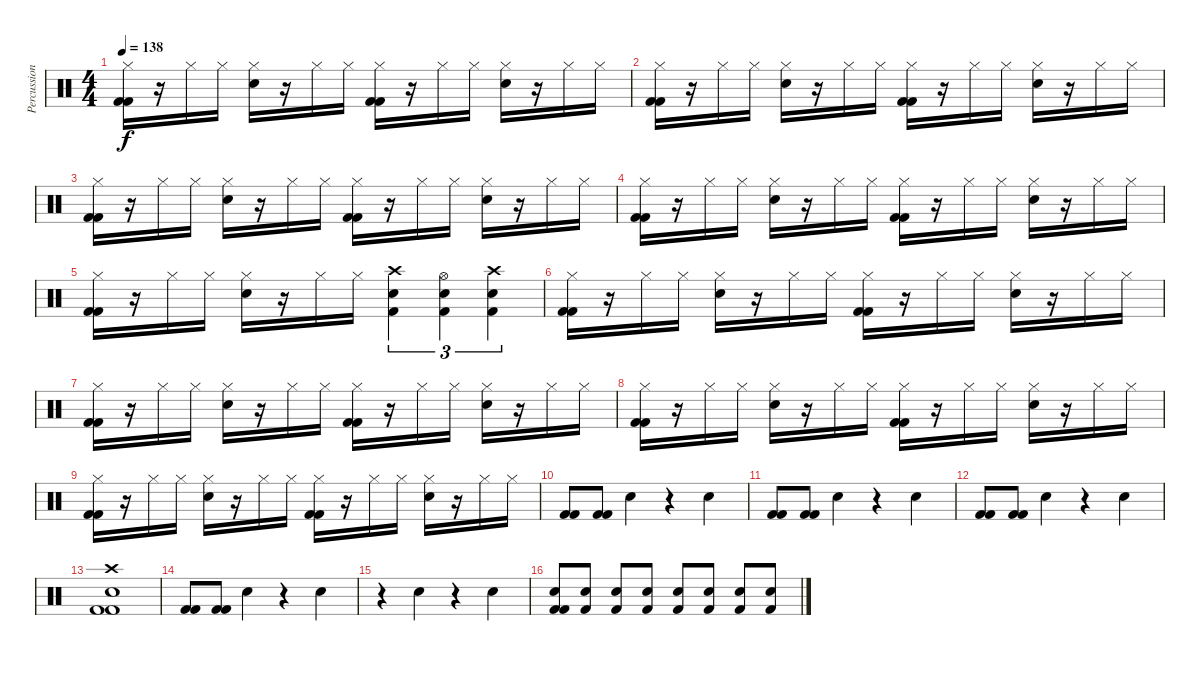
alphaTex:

\track ("Percussion" "Percussion") {instrument percussion}
\staff {score}
\articulation defaults
\ts (4 4)
\tempo 138
\clef neutral
\ks c
("Hi-Hat (closed)" "Kick (hit) 2" "Kick (hit) 2").16{dy f} r.16 "Hi-Hat (closed)".16 "Hi-Hat (closed)".16 ("Hi-Hat (closed)" "Snare (hit) 2").16 r.16 "Hi-Hat (closed)".16 "Hi-Hat (closed)".16 ("Hi-Hat (closed)" "Kick (hit) 2" "Kick (hit) 2").16 r.16 "Hi-Hat (closed)".16 "Hi-Hat (closed)".16 ("Hi-Hat (closed)" "Snare (hit) 2").16 r.16 "Hi-Hat (closed)".16 "Hi-Hat (closed)".16 |
("Hi-Hat (closed)" "Kick (hit) 2" "Kick (hit) 2").16 r.16 "Hi-Hat (closed)".16 "Hi-Hat (closed)".16 ("Hi-Hat (closed)" "Snare (hit) 2").16 r.16 "Hi-Hat (closed)".16 "Hi-Hat (closed)".16 ("Hi-Hat (closed)" "Kick (hit) 2" "Kick (hit) 2").16 r.16 "Hi-Hat (closed)".16 "Hi-Hat (closed)".16 ("Hi-Hat (closed)" "Snare (hit) 2").16 r.16 "Hi-Hat (closed)".16 "Hi-Hat (closed)".16 |
("Hi-Hat (closed)" "Kick (hit) 2" "Kick (hit) 2").16 r.16 "Hi-Hat (closed)".16 "Hi-Hat (closed)".16 ("Hi-Hat (closed)" "Snare (hit) 2").16 r.16 "Hi-Hat (closed)".16 "Hi-Hat (closed)".16 ("Hi-Hat (closed)" "Kick (hit) 2" "Kick (hit) 2").16 r.16 "Hi-Hat (closed)".16 "Hi-Hat (closed)".16 ("Hi-Hat (closed)" "Snare (hit) 2").16 r.16 "Hi-Hat (closed)".16 "Hi-Hat (closed)".16 |
("Hi-Hat (closed)" "Kick (hit) 2" "Kick (hit) 2").16 r.16 "Hi-Hat (closed)".16 "Hi-Hat (closed)".16 ("Hi-Hat (closed)" "Snare (hit) 2").16 r.16 "Hi-Hat (closed)".16 "Hi-Hat (closed)".16 ("Hi-Hat (closed)" "Kick (hit) 2" "Kick (hit) 2").16 r.16 "Hi-Hat (closed)".16 "Hi-Hat (closed)".16 ("Hi-Hat (closed)" "Snare (hit) 2").16 r.16 "Hi-Hat (closed)".16 "Hi-Hat (closed)".16 |
("Hi-Hat (closed)" "Kick (hit) 2" "Kick (hit) 2").16 r.16 "Hi-Hat (closed)".16 "Hi-Hat (closed)".16 ("Hi-Hat (closed)" "Snare (hit) 2").16 r.16 "Hi-Hat (closed)".16 "Hi-Hat (closed)".16 ("Crash high (hit)" "Snare (hit) 2" "Kick (hit) 2").4{tu (3 2)} ("Hi-Hat (open)" "Snare (hit) 2" "Kick (hit) 2").4{tu (3 2)} ("Crash high (hit)" "Snare (hit) 2" "Kick (hit) 2").4{tu (3 2)} |
("Hi-Hat (closed)" "Kick (hit) 2" "Kick (hit) 2").16 r.16 "Hi-Hat (closed)".16 "Hi-Hat (closed)".16 ("Hi-Hat (closed)" "Snare (hit) 2").16 r.16 "Hi-Hat (closed)".16 "Hi-Hat (closed)".16 ("Hi-Hat (closed)" "Kick (hit) 2" "Kick (hit) 2").16 r.16 "Hi-Hat (closed)".16 "Hi-Hat (closed)".16 ("Hi-Hat (closed)" "Snare (hit) 2").16 r.16 "Hi-Hat (closed)".16 "Hi-Hat (closed)".16 |
("Hi-Hat (closed)" "Kick (hit) 2" "Kick (hit) 2").16 r.16 "Hi-Hat (closed)".16 "Hi-Hat (closed)".16 ("Hi-Hat (closed)" "Snare (hit) 2").16 r.16 "Hi-Hat (closed)".16 "Hi-Hat (closed)".16 ("Hi-Hat (closed)" "Kick (hit) 2" "Kick (hit) 2").16 r.16 "Hi-Hat (closed)".16 "Hi-Hat (closed)".16 ("Hi-Hat (closed)" "Snare (hit) 2").16 r.16 "Hi-Hat (closed)".16 "Hi-Hat (closed)".16 |
("Hi-Hat (closed)" "Kick (hit) 2" "Kick (hit) 2").16 r.16 "Hi-Hat (closed)".16 "Hi-Hat (closed)".16 ("Hi-Hat (closed)" "Snare (hit) 2").16 r.16 "Hi-Hat (closed)".16 "Hi-Hat (closed)".16 ("Hi-Hat (closed)" "Kick (hit) 2" "Kick (hit) 2").16 r.16 "Hi-Hat (closed)".16 "Hi-Hat (closed)".16 ("Hi-Hat (closed)" "Snare (hit) 2").16 r.16 "Hi-Hat (closed)".16 "Hi-Hat (closed)".16 |
("Hi-Hat (closed)" "Kick (hit) 2" "Kick (hit) 2").16 r.16 "Hi-Hat (closed)".16 "Hi-Hat (closed)".16 ("Hi-Hat (closed)" "Snare (hit) 2").16 r.16 "Hi-Hat (closed)".16 "Hi-Hat (closed)".16 ("Hi-Hat (closed)" "Kick (hit) 2" "Kick (hit) 2").16 r.16 "Hi-Hat (closed)".16 "Hi-Hat (closed)".16 ("Hi-Hat (closed)" "Snare (hit) 2").16 r.16 "Hi-Hat (closed)".16 "Hi-Hat (closed)".16 |
("Kick (hit) 2" "Kick (hit) 2").8 ("Kick (hit) 2" "Kick (hit) 2").8 "Snare (hit) 2".4 r.4 "Snare (hit) 2".4 |
("Kick (hit) 2" "Kick (hit) 2").8 ("Kick (hit) 2" "Kick (hit) 2").8 "Snare (hit) 2".4 r.4 "Snare (hit) 2".4 |
("Kick (hit) 2" "Kick (hit) 2").8 ("Kick (hit) 2" "Kick (hit) 2").8 "Snare (hit) 2".4 r.4 "Snare (hit) 2".4 |
("Crash high (hit)" "Snare (hit) 2" "Kick (hit) 2" "Kick (hit) 2").1 |
("Kick (hit) 2" "Kick (hit) 2").8 ("Kick (hit) 2" "Kick (hit) 2").8 "Snare (hit) 2".4 r.4 "Snare (hit) 2".4 |
r.4 "Snare (hit) 2".4 r.4 "Snare (hit) 2".4 |
("Snare (hit) 2" "Kick (hit) 2" "Kick (hit) 2").8 ("Snare (hit) 2" "Kick (hit) 2").8{volume 6} ("Snare (hit) 2" "Kick (hit) 2").8{volume 15} ("Snare (hit) 2" "Kick (hit) 2").8 ("Snare (hit) 2" "Kick (hit) 2").8 ("Snare (hit) 2" "Kick (hit) 2").8 ("Snare (hit) 2" "Kick (hit) 2").8 ("Snare (hit) 2" "Kick (hit) 2").8
